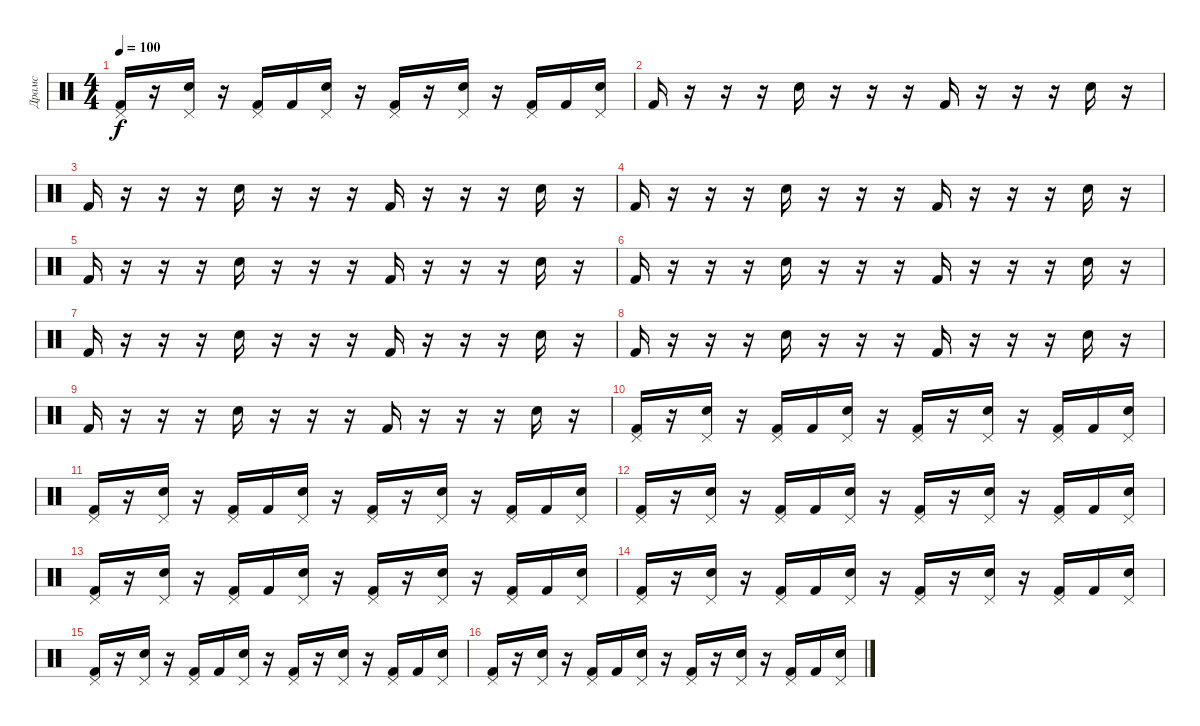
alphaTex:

\track ("Драмс" "Драмс") {instrument percussion}
\staff {score}
\articulation defaults
\ts (4 4)
\tempo 100
\clef neutral
\ks c
("Pedal Hi-Hat (hit)" "Kick (hit) 2").16{dy f} r.16 ("Pedal Hi-Hat (hit)" "Snare (hit) 2").16 r.16 ("Pedal Hi-Hat (hit)" "Kick (hit) 2").16 "Kick (hit) 2".16 ("Pedal Hi-Hat (hit)" "Snare (hit) 2").16 r.16 ("Pedal Hi-Hat (hit)" "Kick (hit) 2").16 r.16 ("Pedal Hi-Hat (hit)" "Snare (hit) 2").16 r.16 ("Pedal Hi-Hat (hit)" "Kick (hit) 2").16 "Kick (hit) 2".16 ("Pedal Hi-Hat (hit)" "Snare (hit) 2").16 |
"Kick (hit) 2".16 r.16 r.16 r.16 "Snare (hit) 2".16 r.16 r.16 r.16 "Kick (hit) 2".16 r.16 r.16 r.16 "Snare (hit) 2".16 r.16 |
"Kick (hit) 2".16 r.16 r.16 r.16 "Snare (hit) 2".16 r.16 r.16 r.16 "Kick (hit) 2".16 r.16 r.16 r.16 "Snare (hit) 2".16 r.16 |
"Kick (hit) 2".16 r.16 r.16 r.16 "Snare (hit) 2".16 r.16 r.16 r.16 "Kick (hit) 2".16 r.16 r.16 r.16 "Snare (hit) 2".16 r.16 |
"Kick (hit) 2".16 r.16 r.16 r.16 "Snare (hit) 2".16 r.16 r.16 r.16 "Kick (hit) 2".16 r.16 r.16 r.16 "Snare (hit) 2".16 r.16 |
"Kick (hit) 2".16 r.16 r.16 r.16 "Snare (hit) 2".16 r.16 r.16 r.16 "Kick (hit) 2".16 r.16 r.16 r.16 "Snare (hit) 2".16 r.16 |
"Kick (hit) 2".16 r.16 r.16 r.16 "Snare (hit) 2".16 r.16 r.16 r.16 "Kick (hit) 2".16 r.16 r.16 r.16 "Snare (hit) 2".16 r.16 |
"Kick (hit) 2".16 r.16 r.16 r.16 "Snare (hit) 2".16 r.16 r.16 r.16 "Kick (hit) 2".16 r.16 r.16 r.16 "Snare (hit) 2".16 r.16 |
"Kick (hit) 2".16 r.16 r.16 r.16 "Snare (hit) 2".16 r.16 r.16 r.16 "Kick (hit) 2".16 r.16 r.16 r.16 "Snare (hit) 2".16 r.16 |
("Pedal Hi-Hat (hit)" "Kick (hit) 2").16 r.16 ("Pedal Hi-Hat (hit)" "Snare (hit) 2").16 r.16 ("Pedal Hi-Hat (hit)" "Kick (hit) 2").16 "Kick (hit) 2".16 ("Pedal Hi-Hat (hit)" "Snare (hit) 2").16 r.16 ("Pedal Hi-Hat (hit)" "Kick (hit) 2").16 r.16 ("Pedal Hi-Hat (hit)" "Snare (hit) 2").16 r.16 ("Pedal Hi-Hat (hit)" "Kick (hit) 2").16 "Kick (hit) 2".16 ("Pedal Hi-Hat (hit)" "Snare (hit) 2").16 |
("Pedal Hi-Hat (hit)" "Kick (hit) 2").16 r.16 ("Pedal Hi-Hat (hit)" "Snare (hit) 2").16 r.16 ("Pedal Hi-Hat (hit)" "Kick (hit) 2").16 "Kick (hit) 2".16 ("Pedal Hi-Hat (hit)" "Snare (hit) 2").16 r.16 ("Pedal Hi-Hat (hit)" "Kick (hit) 2").16 r.16 ("Pedal Hi-Hat (hit)" "Snare (hit) 2").16 r.16 ("Pedal Hi-Hat (hit)" "Kick (hit) 2").16 "Kick (hit) 2".16 ("Pedal Hi-Hat (hit)" "Snare (hit) 2").16 |
("Pedal Hi-Hat (hit)" "Kick (hit) 2").16 r.16 ("Pedal Hi-Hat (hit)" "Snare (hit) 2").16 r.16 ("Pedal Hi-Hat (hit)" "Kick (hit) 2").16 "Kick (hit) 2".16 ("Pedal Hi-Hat (hit)" "Snare (hit) 2").16 r.16 ("Pedal Hi-Hat (hit)" "Kick (hit) 2").16 r.16 ("Pedal Hi-Hat (hit)" "Snare (hit) 2").16 r.16 ("Pedal Hi-Hat (hit)" "Kick (hit) 2").16 "Kick (hit) 2".16 ("Pedal Hi-Hat (hit)" "Snare (hit) 2").16 |
("Pedal Hi-Hat (hit)" "Kick (hit) 2").16 r.16 ("Pedal Hi-Hat (hit)" "Snare (hit) 2").16 r.16 ("Pedal Hi-Hat (hit)" "Kick (hit) 2").16 "Kick (hit) 2".16 ("Pedal Hi-Hat (hit)" "Snare (hit) 2").16 r.16 ("Pedal Hi-Hat (hit)" "Kick (hit) 2").16 r.16 ("Pedal Hi-Hat (hit)" "Snare (hit) 2").16 r.16 ("Pedal Hi-Hat (hit)" "Kick (hit) 2").16 "Kick (hit) 2".16 ("Pedal Hi-Hat (hit)" "Snare (hit) 2").16 |
("Pedal Hi-Hat (hit)" "Kick (hit) 2").16 r.16 ("Pedal Hi-Hat (hit)" "Snare (hit) 2").16 r.16 ("Pedal Hi-Hat (hit)" "Kick (hit) 2").16 "Kick (hit) 2".16 ("Pedal Hi-Hat (hit)" "Snare (hit) 2").16 r.16 ("Pedal Hi-Hat (hit)" "Kick (hit) 2").16 r.16 ("Pedal Hi-Hat (hit)" "Snare (hit) 2").16 r.16 ("Pedal Hi-Hat (hit)" "Kick (hit) 2").16 "Kick (hit) 2".16 ("Pedal Hi-Hat (hit)" "Snare (hit) 2").16 |
("Pedal Hi-Hat (hit)" "Kick (hit) 2").16 r.16 ("Pedal Hi-Hat (hit)" "Snare (hit) 2").16 r.16 ("Pedal Hi-Hat (hit)" "Kick (hit) 2").16 "Kick (hit) 2".16 ("Pedal Hi-Hat (hit)" "Snare (hit) 2").16 r.16 ("Pedal Hi-Hat (hit)" "Kick (hit) 2").16 r.16 ("Pedal Hi-Hat (hit)" "Snare (hit) 2").16 r.16 ("Pedal Hi-Hat (hit)" "Kick (hit) 2").16 "Kick (hit) 2".16 ("Pedal Hi-Hat (hit)" "Snare (hit) 2").16 |
("Pedal Hi-Hat (hit)" "Kick (hit) 2").16 r.16 ("Pedal Hi-Hat (hit)" "Snare (hit) 2").16 r.16 ("Pedal Hi-Hat (hit)" "Kick (hit) 2").16 "Kick (hit) 2".16 ("Pedal Hi-Hat (hit)" "Snare (hit) 2").16 r.16 ("Pedal Hi-Hat (hit)" "Kick (hit) 2").16 r.16 ("Pedal Hi-Hat (hit)" "Snare (hit) 2").16 r.16 ("Pedal Hi-Hat (hit)" "Kick (hit) 2").16 "Kick (hit) 2".16 ("Pedal Hi-Hat (hit)" "Snare (hit) 2").16
